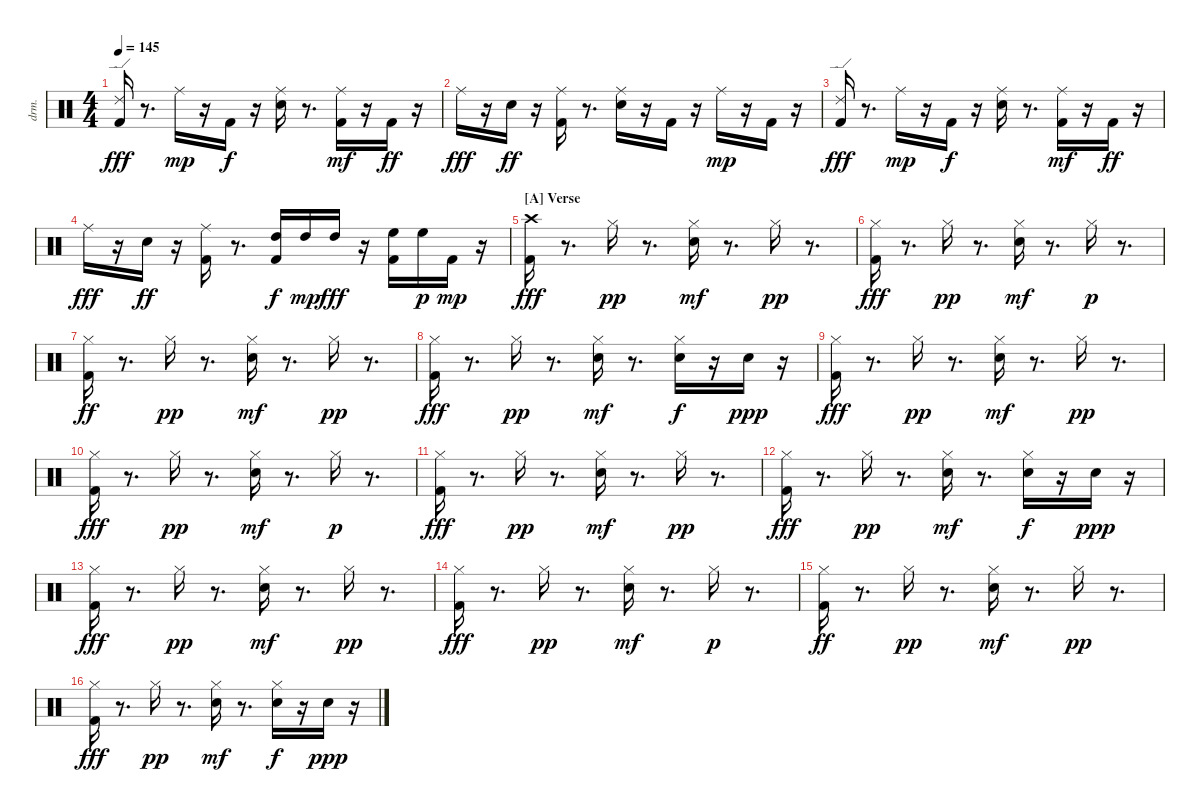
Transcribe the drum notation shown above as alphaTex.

\bracketExtendMode nobrackets
\track ("EZdrummer 3" "drm.") {instrument percussion}
\staff {score}
\articulation defaults
\ts (4 4)
\tempo 145
\clef neutral
\ks aminor
("Kick (hit) 2" "Ride (edge) 2").16{dy fff} r.8{d} "Ride (middle)"{acc #}.16{dy mp} r.16 "Kick (hit) 2".16{dy f} r.16 ("Snare (hit) 2" "Ride (middle)"{acc #}).16 r.8{d} ("Kick (hit) 2" "Ride (middle)"{acc #}).16{dy mf} r.16 "Kick (hit) 2".16{dy ff} r.16 |
"Ride (middle)"{acc #}.16{dy fff} r.16 "Snare (hit) 2".16{dy ff} r.16 ("Kick (hit) 2" "Ride (middle)"{acc #}).16 r.8{d} ("Snare (hit) 2" "Ride (middle)"{acc #}).16 r.16 "Kick (hit) 2".16 r.16 "Ride (middle)"{acc #}.16{dy mp} r.16 "Kick (hit) 2".16 r.16 |
("Kick (hit) 2" "Ride (edge) 2").16{dy fff} r.8{d} "Ride (middle)"{acc #}.16{dy mp} r.16 "Kick (hit) 2".16{dy f} r.16 ("Snare (hit) 2" "Ride (middle)"{acc #}).16 r.8{d} ("Kick (hit) 2" "Ride (middle)"{acc #}).16{dy mf} r.16 "Kick (hit) 2".16{dy ff} r.16 |
"Ride (middle)"{acc #}.16{dy fff} r.16 "Snare (hit) 2".16{dy ff} r.16 ("Kick (hit) 2" "Ride (middle)"{acc #}).16 r.8{d} ("Kick (hit) 2" "High Tom (hit)").16{dy f} "High Tom (hit)".16{dy mp} "High Tom (hit)".16{dy fff} r.16 ("Kick (hit) 2" "High Floor Tom (hit)").16 "High Floor Tom (hit)".16{dy p} "Kick (hit) 2".16{dy mp} r.16 |
\section ("A" "Verse")
("Kick (hit) 2" "Crash high (hit)"{acc #}).16{dy fff} r.8{d} "Hi-Hat (closed)"{acc #}.16{dy pp} r.8{d} ("Snare (hit) 2" "Hi-Hat (closed)"{acc #}).16{dy mf} r.8{d} "Hi-Hat (closed)"{acc #}.16{dy pp} r.8{d} |
("Kick (hit) 2" "Hi-Hat (closed)"{acc #}).16{dy fff} r.8{d} "Hi-Hat (closed)"{acc #}.16{dy pp} r.8{d} ("Snare (hit) 2" "Hi-Hat (closed)"{acc #}).16{dy mf} r.8{d} "Hi-Hat (closed)"{acc #}.16{dy p} r.8{d} |
("Kick (hit) 2" "Hi-Hat (closed)"{acc #}).16{dy ff} r.8{d} "Hi-Hat (closed)"{acc #}.16{dy pp} r.8{d} ("Snare (hit) 2" "Hi-Hat (closed)"{acc #}).16{dy mf} r.8{d} "Hi-Hat (closed)"{acc #}.16{dy pp} r.8{d} |
("Kick (hit) 2" "Hi-Hat (closed)"{acc #}).16{dy fff} r.8{d} "Hi-Hat (closed)"{acc #}.16{dy pp} r.8{d} ("Snare (hit) 2" "Hi-Hat (closed)"{acc #}).16{dy mf} r.8{d} ("Snare (hit) 2" "Hi-Hat (closed)"{acc #}).16{dy f} r.16 "Snare (hit) 2".16{dy ppp} r.16 |
("Kick (hit) 2" "Hi-Hat (closed)"{acc #}).16{dy fff} r.8{d} "Hi-Hat (closed)"{acc #}.16{dy pp} r.8{d} ("Snare (hit) 2" "Hi-Hat (closed)"{acc #}).16{dy mf} r.8{d} "Hi-Hat (closed)"{acc #}.16{dy pp} r.8{d} |
("Kick (hit) 2" "Hi-Hat (closed)"{acc #}).16{dy fff} r.8{d} "Hi-Hat (closed)"{acc #}.16{dy pp} r.8{d} ("Snare (hit) 2" "Hi-Hat (closed)"{acc #}).16{dy mf} r.8{d} "Hi-Hat (closed)"{acc #}.16{dy p} r.8{d} |
("Kick (hit) 2" "Hi-Hat (closed)"{acc #}).16{dy fff} r.8{d} "Hi-Hat (closed)"{acc #}.16{dy pp} r.8{d} ("Snare (hit) 2" "Hi-Hat (closed)"{acc #}).16{dy mf} r.8{d} "Hi-Hat (closed)"{acc #}.16{dy pp} r.8{d} |
("Kick (hit) 2" "Hi-Hat (closed)"{acc #}).16{dy fff} r.8{d} "Hi-Hat (closed)"{acc #}.16{dy pp} r.8{d} ("Snare (hit) 2" "Hi-Hat (closed)"{acc #}).16{dy mf} r.8{d} ("Snare (hit) 2" "Hi-Hat (closed)"{acc #}).16{dy f} r.16 "Snare (hit) 2".16{dy ppp} r.16 |
("Kick (hit) 2" "Hi-Hat (closed)"{acc #}).16{dy fff} r.8{d} "Hi-Hat (closed)"{acc #}.16{dy pp} r.8{d} ("Snare (hit) 2" "Hi-Hat (closed)"{acc #}).16{dy mf} r.8{d} "Hi-Hat (closed)"{acc #}.16{dy pp} r.8{d} |
("Kick (hit) 2" "Hi-Hat (closed)"{acc #}).16{dy fff} r.8{d} "Hi-Hat (closed)"{acc #}.16{dy pp} r.8{d} ("Snare (hit) 2" "Hi-Hat (closed)"{acc #}).16{dy mf} r.8{d} "Hi-Hat (closed)"{acc #}.16{dy p} r.8{d} |
("Kick (hit) 2" "Hi-Hat (closed)"{acc #}).16{dy ff} r.8{d} "Hi-Hat (closed)"{acc #}.16{dy pp} r.8{d} ("Snare (hit) 2" "Hi-Hat (closed)"{acc #}).16{dy mf} r.8{d} "Hi-Hat (closed)"{acc #}.16{dy pp} r.8{d} |
("Kick (hit) 2" "Hi-Hat (closed)"{acc #}).16{dy fff} r.8{d} "Hi-Hat (closed)"{acc #}.16{dy pp} r.8{d} ("Snare (hit) 2" "Hi-Hat (closed)"{acc #}).16{dy mf} r.8{d} ("Snare (hit) 2" "Hi-Hat (closed)"{acc #}).16{dy f} r.16 "Snare (hit) 2".16{dy ppp} r.16
